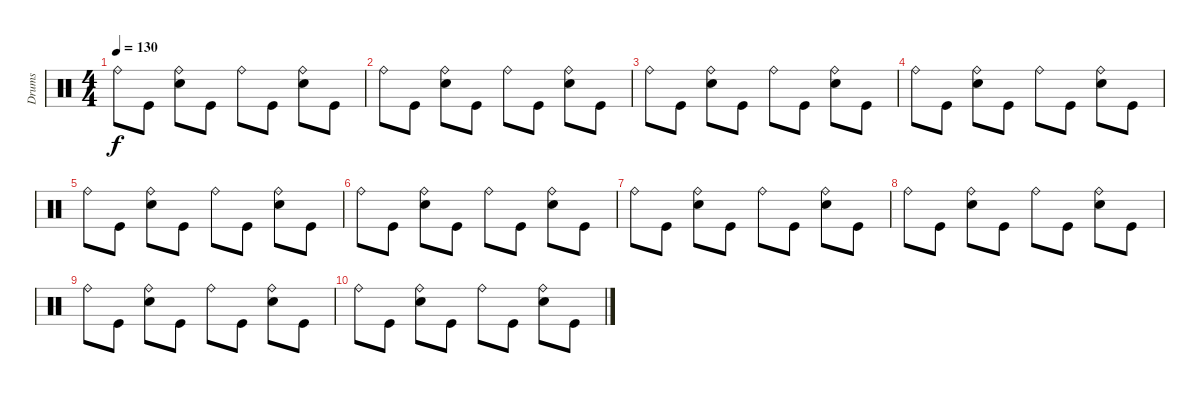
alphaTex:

\track ("Drums" "Drums") {instrument percussion}
\staff {score}
\articulation defaults
\ts (4 4)
\tempo 130
\clef neutral
\ks c "Ride (bell)".8{dy f} "Kick (hit)".8
("Ride (bell)" "Electric Snare (hit)").8 "Kick (hit)".8 "Ride (bell)".8 "Kick (hit)".8 ("Ride (bell)" "Electric Snare (hit)").8 "Kick (hit)".8 |
"Ride (bell)".8 "Kick (hit)".8 ("Ride (bell)" "Electric Snare (hit)").8 "Kick (hit)".8 "Ride (bell)".8 "Kick (hit)".8 ("Ride (bell)" "Electric Snare (hit)").8 "Kick (hit)".8 |
"Ride (bell)".8 "Kick (hit)".8 ("Ride (bell)" "Electric Snare (hit)").8 "Kick (hit)".8 "Ride (bell)".8 "Kick (hit)".8 ("Ride (bell)" "Electric Snare (hit)").8 "Kick (hit)".8 |
"Ride (bell)".8 "Kick (hit)".8 ("Ride (bell)" "Electric Snare (hit)").8 "Kick (hit)".8 "Ride (bell)".8 "Kick (hit)".8 ("Ride (bell)" "Electric Snare (hit)").8 "Kick (hit)".8 |
"Ride (bell)".8 "Kick (hit)".8 ("Ride (bell)" "Electric Snare (hit)").8 "Kick (hit)".8 "Ride (bell)".8 "Kick (hit)".8 ("Ride (bell)" "Electric Snare (hit)").8 "Kick (hit)".8 |
"Ride (bell)".8 "Kick (hit)".8 ("Ride (bell)" "Electric Snare (hit)").8 "Kick (hit)".8 "Ride (bell)".8 "Kick (hit)".8 ("Ride (bell)" "Electric Snare (hit)").8 "Kick (hit)".8 |
"Ride (bell)".8 "Kick (hit)".8 ("Ride (bell)" "Electric Snare (hit)").8 "Kick (hit)".8 "Ride (bell)".8 "Kick (hit)".8 ("Ride (bell)" "Electric Snare (hit)").8 "Kick (hit)".8 |
"Ride (bell)".8 "Kick (hit)".8 ("Ride (bell)" "Electric Snare (hit)").8 "Kick (hit)".8 "Ride (bell)".8 "Kick (hit)".8 ("Ride (bell)" "Electric Snare (hit)").8 "Kick (hit)".8 |
"Ride (bell)".8 "Kick (hit)".8 ("Ride (bell)" "Electric Snare (hit)").8 "Kick (hit)".8 "Ride (bell)".8 "Kick (hit)".8 ("Ride (bell)" "Electric Snare (hit)").8 "Kick (hit)".8 |
"Ride (bell)".8 "Kick (hit)".8 ("Ride (bell)" "Electric Snare (hit)").8 "Kick (hit)".8 "Ride (bell)".8 "Kick (hit)".8 ("Ride (bell)" "Electric Snare (hit)").8 "Kick (hit)".8
